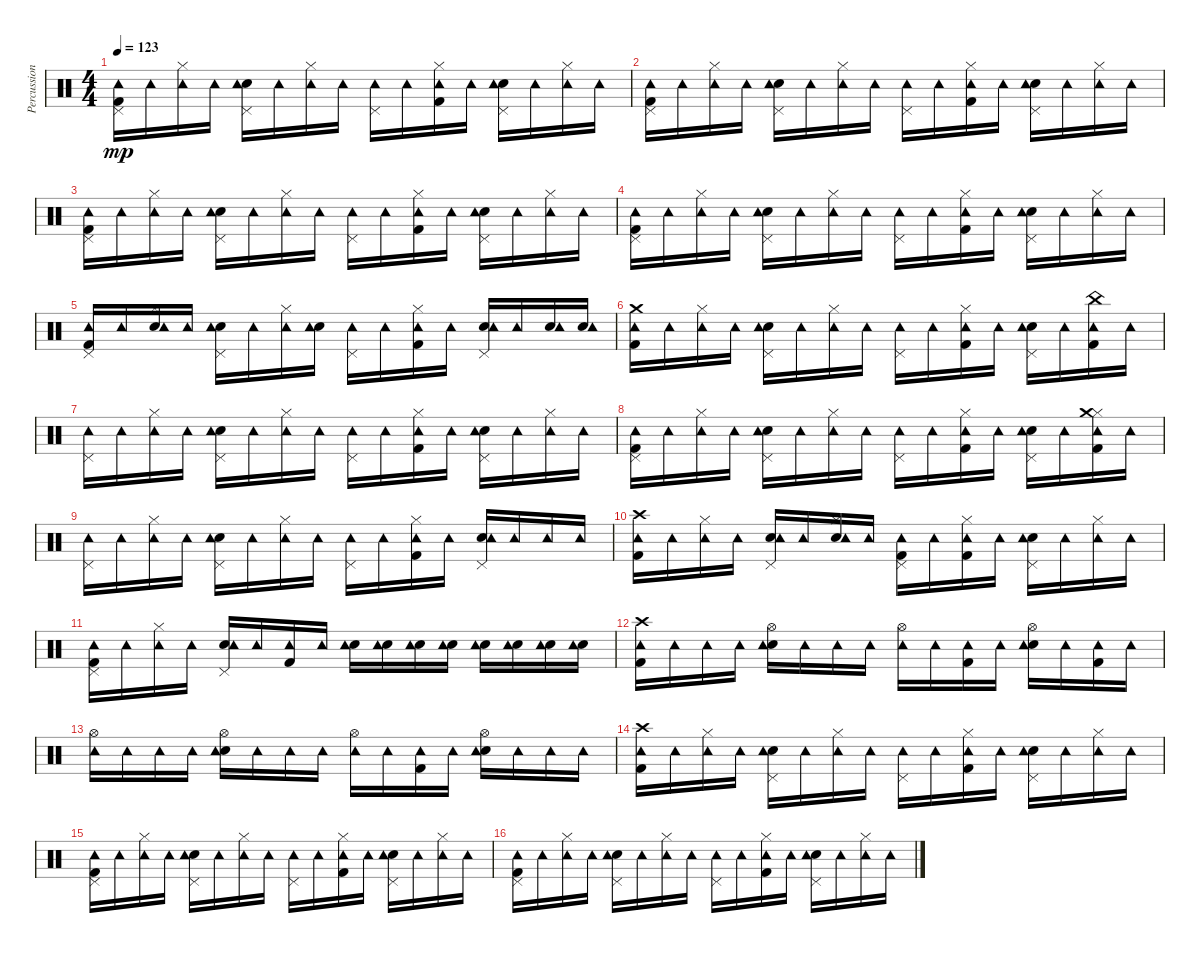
\track ("Percussions" "Percussion") {instrument percussion}
\staff {score}
\articulation defaults
\ts (4 4)
\tempo 123
\clef neutral
\ks c
("Kick (hit) 2" "Pedal Hi-Hat (hit)" "Tambourine (hit)").16{dy mp} "Tambourine (hit)".16 ("Hi-Hat (closed)" "Tambourine (hit)").16 "Tambourine (hit)".16 ("Snare (hit) 2" "Pedal Hi-Hat (hit)" "Tambourine (hit)").16 "Tambourine (hit)".16 ("Hi-Hat (closed)" "Tambourine (hit)").16 "Tambourine (hit)".16 ("Pedal Hi-Hat (hit)" "Tambourine (hit)").16 "Tambourine (hit)".16 ("Kick (hit) 2" "Hi-Hat (closed)" "Tambourine (hit)").16 "Tambourine (hit)".16 ("Snare (hit) 2" "Pedal Hi-Hat (hit)" "Tambourine (hit)").16 "Tambourine (hit)".16 ("Hi-Hat (closed)" "Tambourine (hit)").16 "Tambourine (hit)".16 |
("Kick (hit) 2" "Pedal Hi-Hat (hit)" "Tambourine (hit)").16 "Tambourine (hit)".16 ("Hi-Hat (closed)" "Tambourine (hit)").16 "Tambourine (hit)".16 ("Snare (hit) 2" "Pedal Hi-Hat (hit)" "Tambourine (hit)").16 "Tambourine (hit)".16 ("Hi-Hat (closed)" "Tambourine (hit)").16 "Tambourine (hit)".16 ("Pedal Hi-Hat (hit)" "Tambourine (hit)").16 "Tambourine (hit)".16 ("Kick (hit) 2" "Hi-Hat (closed)" "Tambourine (hit)").16 "Tambourine (hit)".16 ("Snare (hit) 2" "Pedal Hi-Hat (hit)" "Tambourine (hit)").16 "Tambourine (hit)".16 ("Hi-Hat (closed)" "Tambourine (hit)").16 "Tambourine (hit)".16 |
("Kick (hit) 2" "Pedal Hi-Hat (hit)" "Tambourine (hit)").16 "Tambourine (hit)".16 ("Hi-Hat (closed)" "Tambourine (hit)").16 "Tambourine (hit)".16 ("Snare (hit) 2" "Pedal Hi-Hat (hit)" "Tambourine (hit)").16 "Tambourine (hit)".16 ("Hi-Hat (closed)" "Tambourine (hit)").16 "Tambourine (hit)".16 ("Pedal Hi-Hat (hit)" "Tambourine (hit)").16 "Tambourine (hit)".16 ("Kick (hit) 2" "Hi-Hat (closed)" "Tambourine (hit)").16 "Tambourine (hit)".16 ("Snare (hit) 2" "Pedal Hi-Hat (hit)" "Tambourine (hit)").16 "Tambourine (hit)".16 ("Hi-Hat (closed)" "Tambourine (hit)").16 "Tambourine (hit)".16 |
("Kick (hit) 2" "Pedal Hi-Hat (hit)" "Tambourine (hit)").16 "Tambourine (hit)".16 ("Hi-Hat (closed)" "Tambourine (hit)").16 "Tambourine (hit)".16 ("Snare (hit) 2" "Pedal Hi-Hat (hit)" "Tambourine (hit)").16 "Tambourine (hit)".16 ("Hi-Hat (closed)" "Tambourine (hit)").16 "Tambourine (hit)".16 ("Pedal Hi-Hat (hit)" "Tambourine (hit)").16 "Tambourine (hit)".16 ("Kick (hit) 2" "Hi-Hat (closed)" "Tambourine (hit)").16 "Tambourine (hit)".16 ("Snare (hit) 2" "Pedal Hi-Hat (hit)" "Tambourine (hit)").16 "Tambourine (hit)".16 ("Hi-Hat (closed)" "Tambourine (hit)").16 "Tambourine (hit)".16 |
("Kick (hit) 2" "Pedal Hi-Hat (hit)" "Tambourine (hit)").16 "Tambourine (hit)".16 ("Snare (hit) 2" "Hi-Hat (closed)" "Tambourine (hit)").16 "Tambourine (hit)".16 ("Snare (hit) 2" "Pedal Hi-Hat (hit)" "Tambourine (hit)").16 "Tambourine (hit)".16 ("Hi-Hat (closed)" "Tambourine (hit)").16 ("Snare (hit) 2" "Tambourine (hit)").16 ("Pedal Hi-Hat (hit)" "Tambourine (hit)").16 "Tambourine (hit)".16 ("Kick (hit) 2" "Hi-Hat (closed)" "Tambourine (hit)").16 "Tambourine (hit)".16 ("Snare (hit) 2" "Pedal Hi-Hat (hit)" "Tambourine (hit)").16 "Tambourine (hit)".16 ("Snare (hit) 2" "Tambourine (hit)").16 ("Snare (hit) 2" "Tambourine (hit)").16 |
("Kick (hit) 2" "Tambourine (hit)" "Crash medium (hit)").16 "Tambourine (hit)".16 ("Hi-Hat (closed)" "Tambourine (hit)").16 "Tambourine (hit)".16 ("Snare (hit) 2" "Pedal Hi-Hat (hit)" "Tambourine (hit)").16 "Tambourine (hit)".16 ("Hi-Hat (closed)" "Tambourine (hit)").16 "Tambourine (hit)".16 ("Pedal Hi-Hat (hit)" "Tambourine (hit)").16 "Tambourine (hit)".16 ("Kick (hit) 2" "Hi-Hat (closed)" "Tambourine (hit)").16 "Tambourine (hit)".16 ("Snare (hit) 2" "Pedal Hi-Hat (hit)" "Tambourine (hit)").16 "Tambourine (hit)".16 ("Kick (hit) 2" "China (hit)" "Tambourine (hit)").16 "Tambourine (hit)".16 |
("Pedal Hi-Hat (hit)" "Tambourine (hit)").16 "Tambourine (hit)".16 ("Hi-Hat (closed)" "Tambourine (hit)").16 "Tambourine (hit)".16 ("Snare (hit) 2" "Pedal Hi-Hat (hit)" "Tambourine (hit)").16 "Tambourine (hit)".16 ("Hi-Hat (closed)" "Tambourine (hit)").16 "Tambourine (hit)".16 ("Pedal Hi-Hat (hit)" "Tambourine (hit)").16 "Tambourine (hit)".16 ("Kick (hit) 2" "Hi-Hat (closed)" "Tambourine (hit)").16 "Tambourine (hit)".16 ("Snare (hit) 2" "Pedal Hi-Hat (hit)" "Tambourine (hit)").16 "Tambourine (hit)".16 ("Hi-Hat (closed)" "Tambourine (hit)").16 "Tambourine (hit)".16 |
("Kick (hit) 2" "Pedal Hi-Hat (hit)" "Tambourine (hit)").16 "Tambourine (hit)".16 ("Hi-Hat (closed)" "Tambourine (hit)").16 "Tambourine (hit)".16 ("Snare (hit) 2" "Pedal Hi-Hat (hit)" "Tambourine (hit)").16 "Tambourine (hit)".16 ("Hi-Hat (closed)" "Tambourine (hit)").16 "Tambourine (hit)".16 ("Pedal Hi-Hat (hit)" "Tambourine (hit)").16 "Tambourine (hit)".16 ("Kick (hit) 2" "Hi-Hat (closed)" "Tambourine (hit)").16 "Tambourine (hit)".16 ("Snare (hit) 2" "Pedal Hi-Hat (hit)" "Tambourine (hit)").16 "Tambourine (hit)".16 ("Kick (hit) 2" "Hi-Hat (closed)" "Tambourine (hit)" "Crash medium (hit)").16 "Tambourine (hit)".16 |
("Pedal Hi-Hat (hit)" "Tambourine (hit)").16 "Tambourine (hit)".16 ("Hi-Hat (closed)" "Tambourine (hit)").16 "Tambourine (hit)".16 ("Snare (hit) 2" "Pedal Hi-Hat (hit)" "Tambourine (hit)").16 "Tambourine (hit)".16 ("Hi-Hat (closed)" "Tambourine (hit)").16 "Tambourine (hit)".16 ("Pedal Hi-Hat (hit)" "Tambourine (hit)").16 "Tambourine (hit)".16 ("Kick (hit) 2" "Hi-Hat (closed)" "Tambourine (hit)").16 "Tambourine (hit)".16 ("Snare (hit) 2" "Pedal Hi-Hat (hit)" "Tambourine (hit)").16 "Tambourine (hit)".16 "Tambourine (hit)".16 "Tambourine (hit)".16 |
("Kick (hit) 2" "Crash high (hit)" "Tambourine (hit)").16 "Tambourine (hit)".16 ("Hi-Hat (closed)" "Tambourine (hit)").16 "Tambourine (hit)".16 ("Snare (hit) 2" "Pedal Hi-Hat (hit)" "Tambourine (hit)").16 "Tambourine (hit)".16 ("Snare (hit) 2" "Hi-Hat (closed)" "Tambourine (hit)").16 "Tambourine (hit)".16 ("Kick (hit) 2" "Pedal Hi-Hat (hit)" "Tambourine (hit)").16 "Tambourine (hit)".16 ("Kick (hit) 2" "Hi-Hat (closed)" "Tambourine (hit)").16 "Tambourine (hit)".16 ("Snare (hit) 2" "Pedal Hi-Hat (hit)" "Tambourine (hit)").16 "Tambourine (hit)".16 ("Hi-Hat (closed)" "Tambourine (hit)").16 "Tambourine (hit)".16 |
("Kick (hit) 2" "Pedal Hi-Hat (hit)" "Tambourine (hit)").16 "Tambourine (hit)".16 ("Hi-Hat (closed)" "Tambourine (hit)").16 "Tambourine (hit)".16 ("Snare (hit) 2" "Pedal Hi-Hat (hit)" "Tambourine (hit)").16 "Tambourine (hit)".16 ("Kick (hit) 2" "Tambourine (hit)").16 "Tambourine (hit)".16 ("Snare (hit) 2" "Tambourine (hit)").16 ("Snare (hit) 2" "Tambourine (hit)").16 ("Snare (hit) 2" "Tambourine (hit)").16 ("Snare (hit) 2" "Tambourine (hit)").16 ("Snare (hit) 2" "Tambourine (hit)").16 ("Snare (hit) 2" "Tambourine (hit)").16 ("Snare (hit) 2" "Tambourine (hit)").16 ("Snare (hit) 2" "Tambourine (hit)").16 |
("Kick (hit) 2" "Crash high (hit)" "Tambourine (hit)").16 "Tambourine (hit)".16 "Tambourine (hit)".16 "Tambourine (hit)".16 ("Snare (hit) 2" "Hi-Hat (open)" "Tambourine (hit)").16 "Tambourine (hit)".16 "Tambourine (hit)".16 "Tambourine (hit)".16 ("Hi-Hat (open)" "Tambourine (hit)").16 "Tambourine (hit)".16 ("Kick (hit) 2" "Tambourine (hit)").16 "Tambourine (hit)".16 ("Snare (hit) 2" "Hi-Hat (open)" "Tambourine (hit)").16 "Tambourine (hit)".16 ("Kick (hit) 2" "Tambourine (hit)").16 "Tambourine (hit)".16 |
("Hi-Hat (open)" "Tambourine (hit)").16 "Tambourine (hit)".16 "Tambourine (hit)".16 "Tambourine (hit)".16 ("Snare (hit) 2" "Hi-Hat (open)" "Tambourine (hit)").16 "Tambourine (hit)".16 "Tambourine (hit)".16 "Tambourine (hit)".16 ("Hi-Hat (open)" "Tambourine (hit)").16 "Tambourine (hit)".16 ("Kick (hit) 2" "Tambourine (hit)").16 "Tambourine (hit)".16 ("Snare (hit) 2" "Hi-Hat (open)" "Tambourine (hit)").16 "Tambourine (hit)".16 "Tambourine (hit)".16 "Tambourine (hit)".16 |
("Kick (hit) 2" "Crash high (hit)" "Tambourine (hit)").16 "Tambourine (hit)".16 ("Hi-Hat (closed)" "Tambourine (hit)").16 "Tambourine (hit)".16 ("Snare (hit) 2" "Pedal Hi-Hat (hit)" "Tambourine (hit)").16 "Tambourine (hit)".16 ("Hi-Hat (closed)" "Tambourine (hit)").16 "Tambourine (hit)".16 ("Pedal Hi-Hat (hit)" "Tambourine (hit)").16 "Tambourine (hit)".16 ("Kick (hit) 2" "Hi-Hat (closed)" "Tambourine (hit)").16 "Tambourine (hit)".16 ("Snare (hit) 2" "Pedal Hi-Hat (hit)" "Tambourine (hit)").16 "Tambourine (hit)".16 ("Hi-Hat (closed)" "Tambourine (hit)").16 "Tambourine (hit)".16 |
("Kick (hit) 2" "Pedal Hi-Hat (hit)" "Tambourine (hit)").16 "Tambourine (hit)".16 ("Hi-Hat (closed)" "Tambourine (hit)").16 "Tambourine (hit)".16 ("Snare (hit) 2" "Pedal Hi-Hat (hit)" "Tambourine (hit)").16 "Tambourine (hit)".16 ("Hi-Hat (closed)" "Tambourine (hit)").16 "Tambourine (hit)".16 ("Pedal Hi-Hat (hit)" "Tambourine (hit)").16 "Tambourine (hit)".16 ("Kick (hit) 2" "Hi-Hat (closed)" "Tambourine (hit)").16 "Tambourine (hit)".16 ("Snare (hit) 2" "Pedal Hi-Hat (hit)" "Tambourine (hit)").16 "Tambourine (hit)".16 ("Hi-Hat (closed)" "Tambourine (hit)").16 "Tambourine (hit)".16 |
("Kick (hit) 2" "Pedal Hi-Hat (hit)" "Tambourine (hit)").16 "Tambourine (hit)".16 ("Hi-Hat (closed)" "Tambourine (hit)").16 "Tambourine (hit)".16 ("Snare (hit) 2" "Pedal Hi-Hat (hit)" "Tambourine (hit)").16 "Tambourine (hit)".16 ("Hi-Hat (closed)" "Tambourine (hit)").16 "Tambourine (hit)".16 ("Pedal Hi-Hat (hit)" "Tambourine (hit)").16 "Tambourine (hit)".16 ("Kick (hit) 2" "Hi-Hat (closed)" "Tambourine (hit)").16 "Tambourine (hit)".16 ("Snare (hit) 2" "Pedal Hi-Hat (hit)" "Tambourine (hit)").16 "Tambourine (hit)".16 ("Hi-Hat (closed)" "Tambourine (hit)").16 "Tambourine (hit)".16
